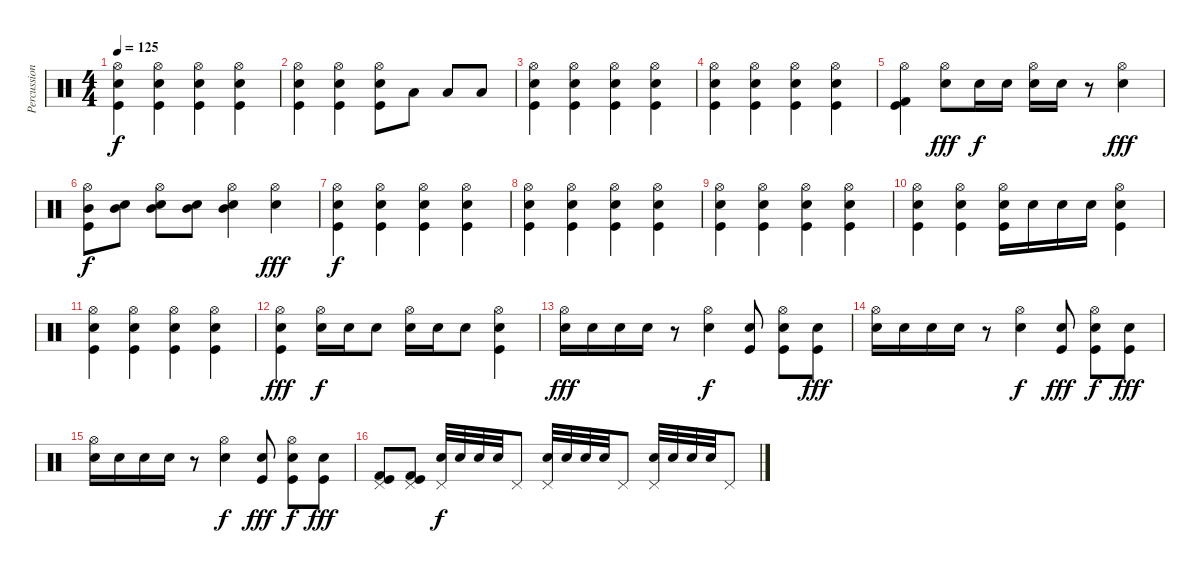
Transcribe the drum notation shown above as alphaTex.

\track ("Percussion" "Percussion") {instrument percussion}
\staff {score}
\articulation defaults
\ts (4 4)
\tempo 125
\clef neutral
\ks c
("Hi-Hat (open)" "Snare (hit) 2" "Kick (hit)").4{dy f} ("Hi-Hat (open)" "Snare (hit) 2" "Kick (hit)").4 ("Hi-Hat (open)" "Snare (hit) 2" "Kick (hit)").4 ("Hi-Hat (open)" "Snare (hit) 2" "Kick (hit)").4 |
("Hi-Hat (open)" "Snare (hit) 2" "Kick (hit)").4 ("Hi-Hat (open)" "Snare (hit) 2" "Kick (hit)").4 ("Hi-Hat (open)" "Snare (hit) 2" "Kick (hit)").8 "Low Tom (hit)".8 "Low Tom (hit)".8 "Low Tom (hit)".8 |
("Hi-Hat (open)" "Snare (hit) 2" "Kick (hit)").4 ("Hi-Hat (open)" "Snare (hit) 2" "Kick (hit)").4 ("Hi-Hat (open)" "Snare (hit) 2" "Kick (hit)").4 ("Hi-Hat (open)" "Snare (hit) 2" "Kick (hit)").4 |
("Hi-Hat (open)" "Snare (hit) 2" "Kick (hit)").4 ("Hi-Hat (open)" "Snare (hit) 2" "Kick (hit)").4 ("Hi-Hat (open)" "Snare (hit) 2" "Kick (hit)").4 ("Hi-Hat (open)" "Snare (hit) 2" "Kick (hit)").4 |
("Hi-Hat (open)" "Kick (hit)" "Kick (hit) 2").4 ("Hi-Hat (open)" "Electric Snare (hit)").8{dy fff} "Electric Snare (hit)".16{dy f} "Electric Snare (hit)".16 ("Hi-Hat (open)" "Electric Snare (hit)").16 "Electric Snare (hit)".16 r.8 ("Hi-Hat (open)" "Electric Snare (hit)").4{dy fff} |
("Hi-Hat (open)" "Mid Tom (hit)" "Kick (hit)").8{dy f} ("Mid Tom (hit)" "Snare (hit) 2").8 ("Hi-Hat (open)" "Mid Tom (hit)" "Snare (hit) 2").8 ("Mid Tom (hit)" "Snare (hit) 2").8 ("Hi-Hat (open)" "Mid Tom (hit)" "Snare (hit) 2").4 ("Hi-Hat (open)" "Electric Snare (hit)").4{dy fff} |
("Hi-Hat (open)" "Snare (hit) 2" "Kick (hit)").4{dy f} ("Hi-Hat (open)" "Snare (hit) 2" "Kick (hit)").4 ("Hi-Hat (open)" "Snare (hit) 2" "Kick (hit)").4 ("Hi-Hat (open)" "Snare (hit) 2" "Kick (hit)").4 |
("Hi-Hat (open)" "Snare (hit) 2" "Kick (hit)").4 ("Hi-Hat (open)" "Snare (hit) 2" "Kick (hit)").4 ("Hi-Hat (open)" "Snare (hit) 2" "Kick (hit)").4 ("Hi-Hat (open)" "Snare (hit) 2" "Kick (hit)").4 |
("Hi-Hat (open)" "Snare (hit) 2" "Kick (hit)").4 ("Hi-Hat (open)" "Snare (hit) 2" "Kick (hit)").4 ("Hi-Hat (open)" "Snare (hit) 2" "Kick (hit)").4 ("Hi-Hat (open)" "Snare (hit) 2" "Kick (hit)").4 |
("Hi-Hat (open)" "Snare (hit) 2" "Kick (hit)").4 ("Hi-Hat (open)" "Snare (hit) 2" "Kick (hit)").4 ("Hi-Hat (open)" "Snare (hit) 2" "Kick (hit)").16 "Snare (hit) 2".16 "Snare (hit) 2".16 "Snare (hit) 2".16 ("Hi-Hat (open)" "Snare (hit) 2" "Kick (hit)").4 |
("Hi-Hat (open)" "Snare (hit) 2" "Kick (hit)").4 ("Hi-Hat (open)" "Snare (hit) 2" "Kick (hit)").4 ("Hi-Hat (open)" "Snare (hit) 2" "Kick (hit)").4 ("Hi-Hat (open)" "Snare (hit) 2" "Kick (hit)").4 |
("Hi-Hat (open)" "Electric Snare (hit)" "Kick (hit)").4{dy fff} ("Hi-Hat (open)" "Snare (hit) 2").16{dy f} "Snare (hit) 2".16 "Snare (hit) 2".8 ("Hi-Hat (open)" "Snare (hit) 2").16 "Snare (hit) 2".16 "Snare (hit) 2".8 ("Hi-Hat (open)" "Snare (hit) 2" "Kick (hit)").4 |
("Hi-Hat (open)" "Electric Snare (hit)").16{dy fff} "Electric Snare (hit)".16 "Electric Snare (hit)".16 "Electric Snare (hit)".16 r.8 ("Hi-Hat (open)" "Snare (hit) 2").4{dy f} ("Electric Snare (hit)" "Kick (hit)").8 ("Hi-Hat (open)" "Snare (hit) 2" "Kick (hit)").8 ("Electric Snare (hit)" "Kick (hit)").8{dy fff} |
("Hi-Hat (open)" "Electric Snare (hit)").16 "Electric Snare (hit)".16 "Electric Snare (hit)".16 "Electric Snare (hit)".16 r.8 ("Hi-Hat (open)" "Snare (hit) 2").4{dy f} ("Electric Snare (hit)" "Kick (hit)").8{dy fff} ("Hi-Hat (open)" "Snare (hit) 2" "Kick (hit)").8{dy f} ("Electric Snare (hit)" "Kick (hit)").8{dy fff} |
("Hi-Hat (open)" "Electric Snare (hit)").16 "Electric Snare (hit)".16 "Electric Snare (hit)".16 "Electric Snare (hit)".16 r.8 ("Hi-Hat (open)" "Snare (hit) 2").4{dy f} ("Electric Snare (hit)" "Kick (hit)").8{dy fff} ("Hi-Hat (open)" "Snare (hit) 2" "Kick (hit)").8{dy f} ("Electric Snare (hit)" "Kick (hit)").8{dy fff} |
("Pedal Hi-Hat (hit)" "Kick (hit)" "Kick (hit) 2").8 ("Pedal Hi-Hat (hit)" "Kick (hit)" "Kick (hit) 2").8 ("Pedal Hi-Hat (hit)" "Electric Snare (hit)").32{dy f} "Electric Snare (hit)".32 "Electric Snare (hit)".32 "Electric Snare (hit)".32 "Pedal Hi-Hat (hit)".8 ("Pedal Hi-Hat (hit)" "Electric Snare (hit)").32 "Electric Snare (hit)".32 "Electric Snare (hit)".32 "Electric Snare (hit)".32 "Pedal Hi-Hat (hit)".8 ("Pedal Hi-Hat (hit)" "Electric Snare (hit)").32 "Electric Snare (hit)".32 "Electric Snare (hit)".32 "Electric Snare (hit)".32 "Pedal Hi-Hat (hit)".8
